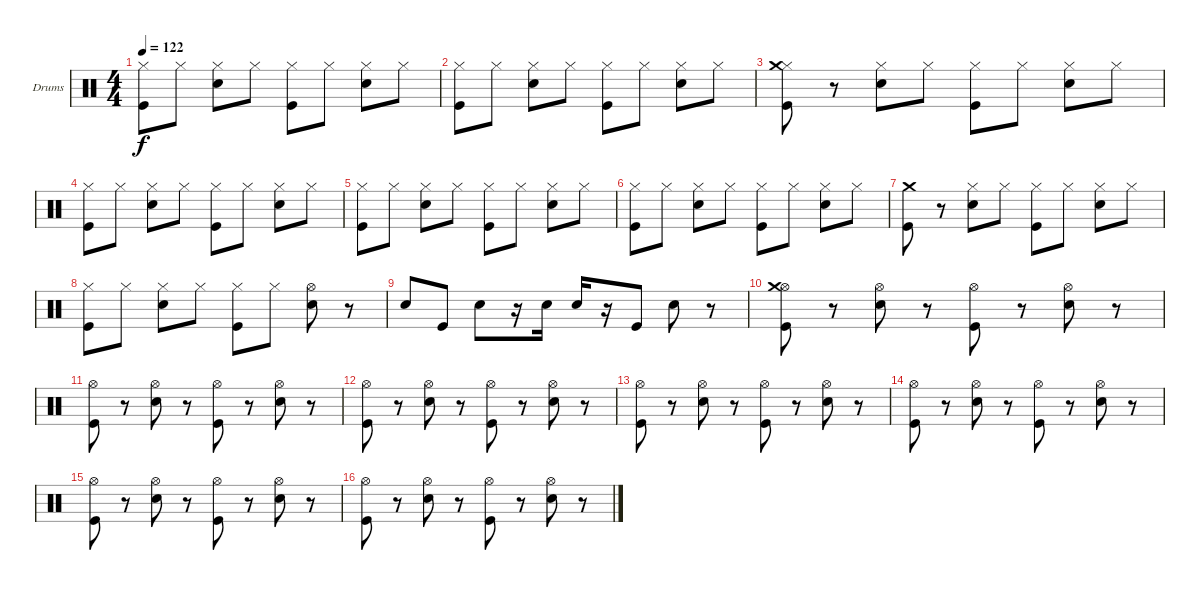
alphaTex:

\bracketExtendMode groupsimilarinstruments
\firstSystemTrackNameOrientation horizontal
\otherSystemsTrackNameOrientation horizontal
\track ("Drumkit" "Drums") {instrument percussion}
\staff {score}
\articulation defaults
\ts (4 4)
\tempo 122
\clef neutral
\ks c
("Kick (hit)" "Hi-Hat (closed)").8{dy f} "Hi-Hat (closed)".8 ("Snare (hit) 2" "Hi-Hat (closed)").8 "Hi-Hat (closed)".8 ("Kick (hit)" "Hi-Hat (closed)").8 "Hi-Hat (closed)".8 ("Snare (hit) 2" "Hi-Hat (closed)").8 "Hi-Hat (closed)".8 |
("Kick (hit)" "Hi-Hat (closed)").8 "Hi-Hat (closed)".8 ("Snare (hit) 2" "Hi-Hat (closed)").8 "Hi-Hat (closed)".8 ("Kick (hit)" "Hi-Hat (closed)").8 "Hi-Hat (closed)".8 ("Snare (hit) 2" "Hi-Hat (closed)").8 "Hi-Hat (closed)".8 |
("Kick (hit)" "Hi-Hat (closed)" "Crash medium (hit)").8 r.8 ("Snare (hit) 2" "Hi-Hat (closed)").8 "Hi-Hat (closed)".8 ("Kick (hit)" "Hi-Hat (closed)").8 "Hi-Hat (closed)".8 ("Snare (hit) 2" "Hi-Hat (closed)").8 "Hi-Hat (closed)".8 |
("Kick (hit)" "Hi-Hat (closed)").8 "Hi-Hat (closed)".8 ("Snare (hit) 2" "Hi-Hat (closed)").8 "Hi-Hat (closed)".8 ("Kick (hit)" "Hi-Hat (closed)").8 "Hi-Hat (closed)".8 ("Snare (hit) 2" "Hi-Hat (closed)").8 "Hi-Hat (closed)".8 |
("Kick (hit)" "Hi-Hat (closed)").8 "Hi-Hat (closed)".8 ("Snare (hit) 2" "Hi-Hat (closed)").8 "Hi-Hat (closed)".8 ("Kick (hit)" "Hi-Hat (closed)").8 "Hi-Hat (closed)".8 ("Snare (hit) 2" "Hi-Hat (closed)").8 "Hi-Hat (closed)".8 |
("Kick (hit)" "Hi-Hat (closed)").8 "Hi-Hat (closed)".8 ("Snare (hit) 2" "Hi-Hat (closed)").8 "Hi-Hat (closed)".8 ("Kick (hit)" "Hi-Hat (closed)").8 "Hi-Hat (closed)".8 ("Snare (hit) 2" "Hi-Hat (closed)").8 "Hi-Hat (closed)".8 |
("Kick (hit)" "Crash medium (hit)").8 r.8 ("Snare (hit) 2" "Hi-Hat (closed)").8 "Hi-Hat (closed)".8 ("Kick (hit)" "Hi-Hat (closed)").8 "Hi-Hat (closed)".8 ("Snare (hit) 2" "Hi-Hat (closed)").8 "Hi-Hat (closed)".8 |
("Kick (hit)" "Hi-Hat (closed)").8 "Hi-Hat (closed)".8 ("Snare (hit) 2" "Hi-Hat (closed)").8 "Hi-Hat (closed)".8 ("Kick (hit)" "Hi-Hat (closed)").8 "Hi-Hat (closed)".8 ("Snare (hit) 2" "Hi-Hat (open)").8 r.8 |
"Snare (hit) 2".8 "Kick (hit)".8 "Snare (hit) 2".8 r.16 "Snare (hit) 2".16 "Snare (hit) 2".16 r.16 "Kick (hit)".8 "Snare (hit) 2".8 r.8 |
("Kick (hit)" "Hi-Hat (open)" "Crash medium (hit)").8 r.8 ("Snare (hit) 2" "Hi-Hat (open)").8 r.8 ("Kick (hit)" "Hi-Hat (open)").8 r.8 ("Snare (hit) 2" "Hi-Hat (open)").8 r.8 |
("Kick (hit)" "Hi-Hat (open)").8 r.8 ("Snare (hit) 2" "Hi-Hat (open)").8 r.8 ("Kick (hit)" "Hi-Hat (open)").8 r.8 ("Snare (hit) 2" "Hi-Hat (open)").8 r.8 |
("Kick (hit)" "Hi-Hat (open)").8 r.8 ("Snare (hit) 2" "Hi-Hat (open)").8 r.8 ("Kick (hit)" "Hi-Hat (open)").8 r.8 ("Snare (hit) 2" "Hi-Hat (open)").8 r.8 |
("Kick (hit)" "Hi-Hat (open)").8 r.8 ("Snare (hit) 2" "Hi-Hat (open)").8 r.8 ("Kick (hit)" "Hi-Hat (open)").8 r.8 ("Snare (hit) 2" "Hi-Hat (open)").8 r.8 |
("Kick (hit)" "Hi-Hat (open)").8 r.8 ("Snare (hit) 2" "Hi-Hat (open)").8 r.8 ("Kick (hit)" "Hi-Hat (open)").8 r.8 ("Snare (hit) 2" "Hi-Hat (open)").8 r.8 |
("Kick (hit)" "Hi-Hat (open)").8 r.8 ("Snare (hit) 2" "Hi-Hat (open)").8 r.8 ("Kick (hit)" "Hi-Hat (open)").8 r.8 ("Snare (hit) 2" "Hi-Hat (open)").8 r.8 |
("Kick (hit)" "Hi-Hat (open)").8 r.8 ("Snare (hit) 2" "Hi-Hat (open)").8 r.8 ("Kick (hit)" "Hi-Hat (open)").8 r.8 ("Snare (hit) 2" "Hi-Hat (open)").8 r.8
